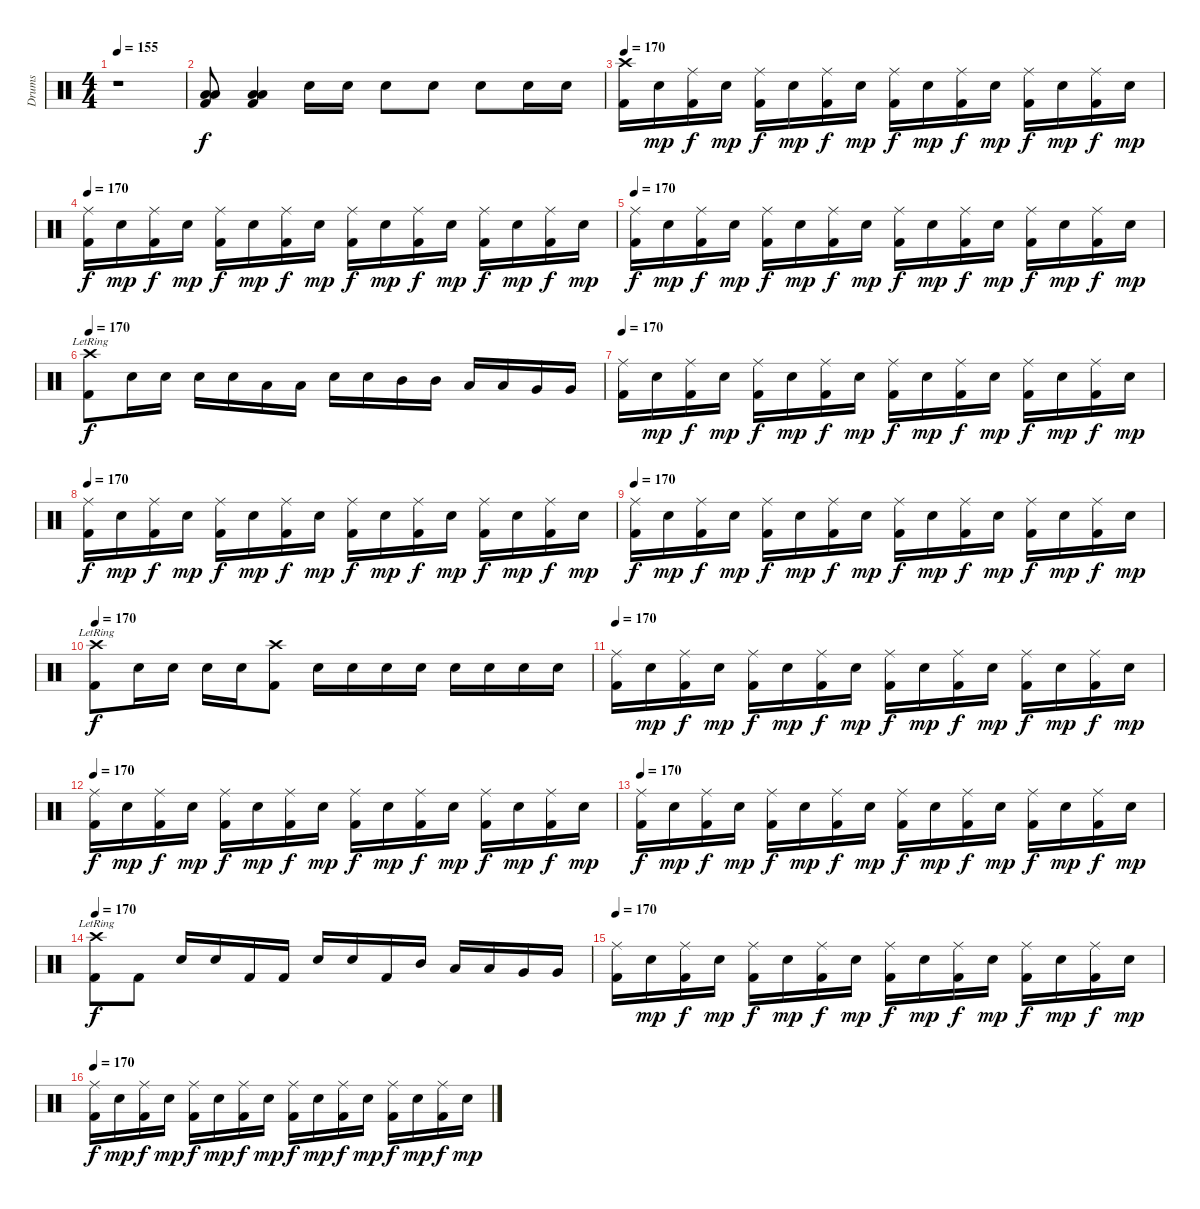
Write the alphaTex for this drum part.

\track ("Drums" "Drums") {instrument percussion}
\staff {score}
\articulation defaults
\ts (4 4)
\tempo 155
\clef neutral
\ks c
r.1{dy f} |
("Low Tom (hit)" "Low Tom (hit)" "Kick (hit) 2").8 ("Low Tom (hit)" "Low Tom (hit)" "Kick (hit) 2").4 "Electric Snare (hit)".16 "Electric Snare (hit)".16 "Electric Snare (hit)".8 "Electric Snare (hit)".8 "Electric Snare (hit)".8 "Electric Snare (hit)".16 "Electric Snare (hit)".16 |
\tempo 170
("Crash high (hit)" "Kick (hit) 2").16 "Electric Snare (hit)".16{dy mp} ("Ride (middle)" "Kick (hit) 2").16{dy f} "Electric Snare (hit)".16{dy mp} ("Ride (middle)" "Kick (hit) 2").16{dy f} "Electric Snare (hit)".16{dy mp} ("Ride (middle)" "Kick (hit) 2").16{dy f} "Electric Snare (hit)".16{dy mp} ("Ride (middle)" "Kick (hit) 2").16{dy f} "Electric Snare (hit)".16{dy mp} ("Ride (middle)" "Kick (hit) 2").16{dy f} "Electric Snare (hit)".16{dy mp} ("Ride (middle)" "Kick (hit) 2").16{dy f} "Electric Snare (hit)".16{dy mp} ("Ride (middle)" "Kick (hit) 2").16{dy f} "Electric Snare (hit)".16{dy mp} |
\tempo 170
("Ride (middle)" "Kick (hit) 2").16{dy f} "Electric Snare (hit)".16{dy mp} ("Ride (middle)" "Kick (hit) 2").16{dy f} "Electric Snare (hit)".16{dy mp} ("Ride (middle)" "Kick (hit) 2").16{dy f} "Electric Snare (hit)".16{dy mp} ("Ride (middle)" "Kick (hit) 2").16{dy f} "Electric Snare (hit)".16{dy mp} ("Ride (middle)" "Kick (hit) 2").16{dy f} "Electric Snare (hit)".16{dy mp} ("Ride (middle)" "Kick (hit) 2").16{dy f} "Electric Snare (hit)".16{dy mp} ("Ride (middle)" "Kick (hit) 2").16{dy f} "Electric Snare (hit)".16{dy mp} ("Ride (middle)" "Kick (hit) 2").16{dy f} "Electric Snare (hit)".16{dy mp} |
\tempo 170
("Ride (middle)" "Kick (hit) 2").16{dy f} "Electric Snare (hit)".16{dy mp} ("Ride (middle)" "Kick (hit) 2").16{dy f} "Electric Snare (hit)".16{dy mp} ("Ride (middle)" "Kick (hit) 2").16{dy f} "Electric Snare (hit)".16{dy mp} ("Ride (middle)" "Kick (hit) 2").16{dy f} "Electric Snare (hit)".16{dy mp} ("Ride (middle)" "Kick (hit) 2").16{dy f} "Electric Snare (hit)".16{dy mp} ("Ride (middle)" "Kick (hit) 2").16{dy f} "Electric Snare (hit)".16{dy mp} ("Ride (middle)" "Kick (hit) 2").16{dy f} "Electric Snare (hit)".16{dy mp} ("Ride (middle)" "Kick (hit) 2").16{dy f} "Electric Snare (hit)".16{dy mp} |
\tempo 170
("Crash high (hit)"{lr} "Kick (hit) 2").8{dy f} "Electric Snare (hit)".16 "Electric Snare (hit)".16 "Electric Snare (hit)".16 "Electric Snare (hit)".16 "Low Tom (hit)".16 "Low Tom (hit)".16 "Electric Snare (hit)".16 "Electric Snare (hit)".16 "Mid Tom (hit)".16 "Mid Tom (hit)".16 "Low Tom (hit)".16 "Low Tom (hit)".16 "Very Low Tom (hit)".16 "Very Low Tom (hit)".16 |
\tempo 170
("Ride (middle)" "Kick (hit) 2").16 "Electric Snare (hit)".16{dy mp} ("Ride (middle)" "Kick (hit) 2").16{dy f} "Electric Snare (hit)".16{dy mp} ("Ride (middle)" "Kick (hit) 2").16{dy f} "Electric Snare (hit)".16{dy mp} ("Ride (middle)" "Kick (hit) 2").16{dy f} "Electric Snare (hit)".16{dy mp} ("Ride (middle)" "Kick (hit) 2").16{dy f} "Electric Snare (hit)".16{dy mp} ("Ride (middle)" "Kick (hit) 2").16{dy f} "Electric Snare (hit)".16{dy mp} ("Ride (middle)" "Kick (hit) 2").16{dy f} "Electric Snare (hit)".16{dy mp} ("Ride (middle)" "Kick (hit) 2").16{dy f} "Electric Snare (hit)".16{dy mp} |
\tempo 170
("Ride (middle)" "Kick (hit) 2").16{dy f} "Electric Snare (hit)".16{dy mp} ("Ride (middle)" "Kick (hit) 2").16{dy f} "Electric Snare (hit)".16{dy mp} ("Ride (middle)" "Kick (hit) 2").16{dy f} "Electric Snare (hit)".16{dy mp} ("Ride (middle)" "Kick (hit) 2").16{dy f} "Electric Snare (hit)".16{dy mp} ("Ride (middle)" "Kick (hit) 2").16{dy f} "Electric Snare (hit)".16{dy mp} ("Ride (middle)" "Kick (hit) 2").16{dy f} "Electric Snare (hit)".16{dy mp} ("Ride (middle)" "Kick (hit) 2").16{dy f} "Electric Snare (hit)".16{dy mp} ("Ride (middle)" "Kick (hit) 2").16{dy f} "Electric Snare (hit)".16{dy mp} |
\tempo 170
("Ride (middle)" "Kick (hit) 2").16{dy f} "Electric Snare (hit)".16{dy mp} ("Ride (middle)" "Kick (hit) 2").16{dy f} "Electric Snare (hit)".16{dy mp} ("Ride (middle)" "Kick (hit) 2").16{dy f} "Electric Snare (hit)".16{dy mp} ("Ride (middle)" "Kick (hit) 2").16{dy f} "Electric Snare (hit)".16{dy mp} ("Ride (middle)" "Kick (hit) 2").16{dy f} "Electric Snare (hit)".16{dy mp} ("Ride (middle)" "Kick (hit) 2").16{dy f} "Electric Snare (hit)".16{dy mp} ("Ride (middle)" "Kick (hit) 2").16{dy f} "Electric Snare (hit)".16{dy mp} ("Ride (middle)" "Kick (hit) 2").16{dy f} "Electric Snare (hit)".16{dy mp} |
\tempo 170
("Crash high (hit)"{lr} "Kick (hit) 2").8{dy f} "Electric Snare (hit)".16 "Electric Snare (hit)".16 "Electric Snare (hit)".16 "Electric Snare (hit)".16 ("Crash high (hit)" "Kick (hit) 2").8 "Electric Snare (hit)".16 "Electric Snare (hit)".16 "Electric Snare (hit)".16 "Electric Snare (hit)".16 "Electric Snare (hit)".16 "Electric Snare (hit)".16 "Electric Snare (hit)".16 "Electric Snare (hit)".16 |
\tempo 170
("Ride (middle)" "Kick (hit) 2").16 "Electric Snare (hit)".16{dy mp} ("Ride (middle)" "Kick (hit) 2").16{dy f} "Electric Snare (hit)".16{dy mp} ("Ride (middle)" "Kick (hit) 2").16{dy f} "Electric Snare (hit)".16{dy mp} ("Ride (middle)" "Kick (hit) 2").16{dy f} "Electric Snare (hit)".16{dy mp} ("Ride (middle)" "Kick (hit) 2").16{dy f} "Electric Snare (hit)".16{dy mp} ("Ride (middle)" "Kick (hit) 2").16{dy f} "Electric Snare (hit)".16{dy mp} ("Ride (middle)" "Kick (hit) 2").16{dy f} "Electric Snare (hit)".16{dy mp} ("Ride (middle)" "Kick (hit) 2").16{dy f} "Electric Snare (hit)".16{dy mp} |
\tempo 170
("Ride (middle)" "Kick (hit) 2").16{dy f} "Electric Snare (hit)".16{dy mp} ("Ride (middle)" "Kick (hit) 2").16{dy f} "Electric Snare (hit)".16{dy mp} ("Ride (middle)" "Kick (hit) 2").16{dy f} "Electric Snare (hit)".16{dy mp} ("Ride (middle)" "Kick (hit) 2").16{dy f} "Electric Snare (hit)".16{dy mp} ("Ride (middle)" "Kick (hit) 2").16{dy f} "Electric Snare (hit)".16{dy mp} ("Ride (middle)" "Kick (hit) 2").16{dy f} "Electric Snare (hit)".16{dy mp} ("Ride (middle)" "Kick (hit) 2").16{dy f} "Electric Snare (hit)".16{dy mp} ("Ride (middle)" "Kick (hit) 2").16{dy f} "Electric Snare (hit)".16{dy mp} |
\tempo 170
("Ride (middle)" "Kick (hit) 2").16{dy f} "Electric Snare (hit)".16{dy mp} ("Ride (middle)" "Kick (hit) 2").16{dy f} "Electric Snare (hit)".16{dy mp} ("Ride (middle)" "Kick (hit) 2").16{dy f} "Electric Snare (hit)".16{dy mp} ("Ride (middle)" "Kick (hit) 2").16{dy f} "Electric Snare (hit)".16{dy mp} ("Ride (middle)" "Kick (hit) 2").16{dy f} "Electric Snare (hit)".16{dy mp} ("Ride (middle)" "Kick (hit) 2").16{dy f} "Electric Snare (hit)".16{dy mp} ("Ride (middle)" "Kick (hit) 2").16{dy f} "Electric Snare (hit)".16{dy mp} ("Ride (middle)" "Kick (hit) 2").16{dy f} "Electric Snare (hit)".16{dy mp} |
\tempo 170
("Crash high (hit)"{lr} "Kick (hit) 2").8{dy f} "Kick (hit) 2".8 "Electric Snare (hit)".16 "Electric Snare (hit)".16 "Kick (hit) 2".16 "Kick (hit) 2".16 "Electric Snare (hit)".16 "Electric Snare (hit)".16 "Kick (hit) 2".16 "Mid Tom (hit)".16 "Low Tom (hit)".16 "Low Tom (hit)".16 "Very Low Tom (hit)".16 "Very Low Tom (hit)".16 |
\tempo 170
("Ride (middle)" "Kick (hit) 2").16 "Electric Snare (hit)".16{dy mp} ("Ride (middle)" "Kick (hit) 2").16{dy f} "Electric Snare (hit)".16{dy mp} ("Ride (middle)" "Kick (hit) 2").16{dy f} "Electric Snare (hit)".16{dy mp} ("Ride (middle)" "Kick (hit) 2").16{dy f} "Electric Snare (hit)".16{dy mp} ("Ride (middle)" "Kick (hit) 2").16{dy f} "Electric Snare (hit)".16{dy mp} ("Ride (middle)" "Kick (hit) 2").16{dy f} "Electric Snare (hit)".16{dy mp} ("Ride (middle)" "Kick (hit) 2").16{dy f} "Electric Snare (hit)".16{dy mp} ("Ride (middle)" "Kick (hit) 2").16{dy f} "Electric Snare (hit)".16{dy mp} |
\tempo 170
("Ride (middle)" "Kick (hit) 2").16{dy f} "Electric Snare (hit)".16{dy mp} ("Ride (middle)" "Kick (hit) 2").16{dy f} "Electric Snare (hit)".16{dy mp} ("Ride (middle)" "Kick (hit) 2").16{dy f} "Electric Snare (hit)".16{dy mp} ("Ride (middle)" "Kick (hit) 2").16{dy f} "Electric Snare (hit)".16{dy mp} ("Ride (middle)" "Kick (hit) 2").16{dy f} "Electric Snare (hit)".16{dy mp} ("Ride (middle)" "Kick (hit) 2").16{dy f} "Electric Snare (hit)".16{dy mp} ("Ride (middle)" "Kick (hit) 2").16{dy f} "Electric Snare (hit)".16{dy mp} ("Ride (middle)" "Kick (hit) 2").16{dy f} "Electric Snare (hit)".16{dy mp}
